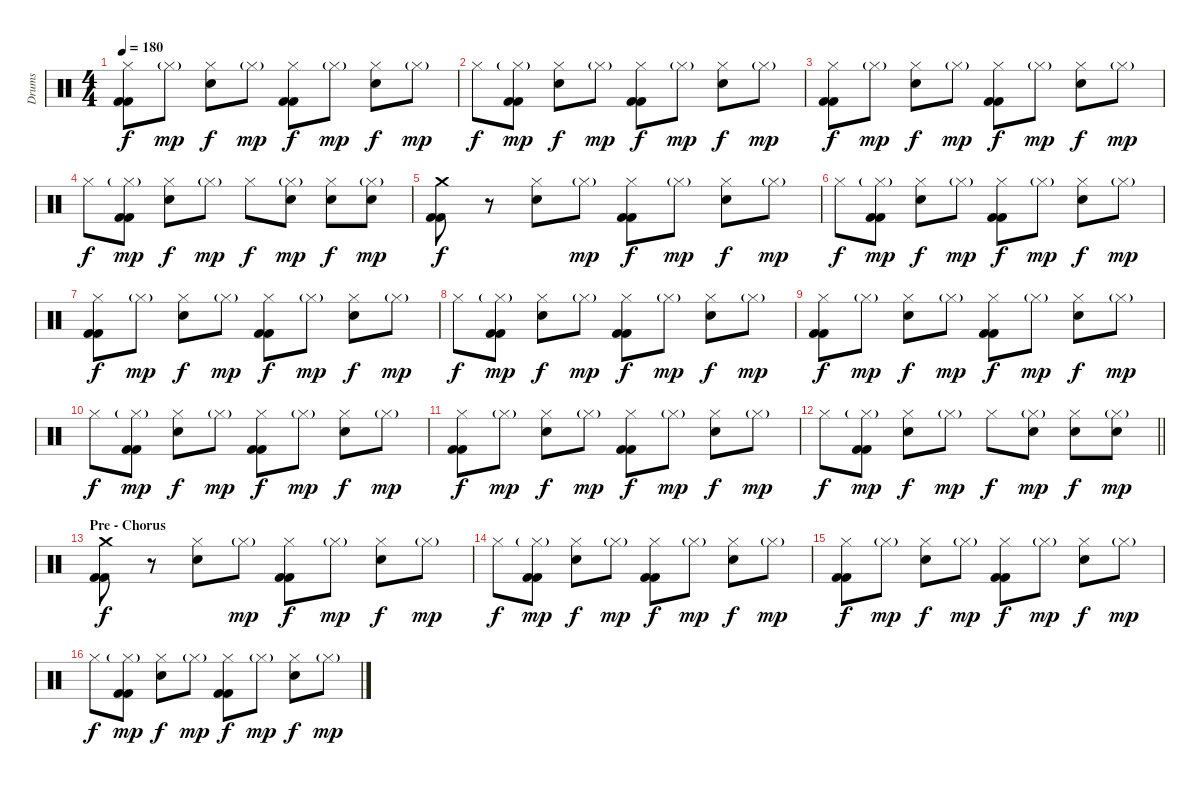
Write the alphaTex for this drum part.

\track ("Drums" "Drums") {instrument percussion}
\staff {score}
\articulation defaults
\ts (4 4)
\tempo 180
\clef neutral
\ks c
("Hi-Hat (closed)" "Kick (hit) 2" "Kick (hit) 2").8{dy f} "Hi-Hat (closed)"{g}.8{dy mp} ("Hi-Hat (closed)" "Snare (hit) 2").8{dy f} "Hi-Hat (closed)"{g}.8{dy mp} ("Hi-Hat (closed)" "Kick (hit) 2" "Kick (hit) 2").8{dy f} "Hi-Hat (closed)"{g}.8{dy mp} ("Hi-Hat (closed)" "Snare (hit) 2").8{dy f} "Hi-Hat (closed)"{g}.8{dy mp} |
"Hi-Hat (closed)".8{dy f} ("Hi-Hat (closed)"{g} "Kick (hit) 2" "Kick (hit) 2").8{dy mp} ("Hi-Hat (closed)" "Snare (hit) 2").8{dy f} "Hi-Hat (closed)"{g}.8{dy mp} ("Hi-Hat (closed)" "Kick (hit) 2" "Kick (hit) 2").8{dy f} "Hi-Hat (closed)"{g}.8{dy mp} ("Hi-Hat (closed)" "Snare (hit) 2").8{dy f} "Hi-Hat (closed)"{g}.8{dy mp} |
("Hi-Hat (closed)" "Kick (hit) 2" "Kick (hit) 2").8{dy f} "Hi-Hat (closed)"{g}.8{dy mp} ("Hi-Hat (closed)" "Snare (hit) 2").8{dy f} "Hi-Hat (closed)"{g}.8{dy mp} ("Hi-Hat (closed)" "Kick (hit) 2" "Kick (hit) 2").8{dy f} "Hi-Hat (closed)"{g}.8{dy mp} ("Hi-Hat (closed)" "Snare (hit) 2").8{dy f} "Hi-Hat (closed)"{g}.8{dy mp} |
"Hi-Hat (closed)".8{dy f} ("Hi-Hat (closed)"{g} "Kick (hit) 2" "Kick (hit) 2").8{dy mp} ("Hi-Hat (closed)" "Snare (hit) 2").8{dy f} "Hi-Hat (closed)"{g}.8{dy mp} "Hi-Hat (closed)".8{dy f} ("Hi-Hat (closed)"{g} "Snare (hit) 2").8{dy mp} ("Hi-Hat (closed)" "Snare (hit) 2").8{dy f} ("Hi-Hat (closed)"{g} "Snare (hit) 2").8{dy mp} |
("Crash medium (hit)" "Kick (hit) 2" "Kick (hit) 2").8{dy f} r.8 ("Hi-Hat (closed)" "Snare (hit) 2").8 "Hi-Hat (closed)"{g}.8{dy mp} ("Hi-Hat (closed)" "Kick (hit) 2" "Kick (hit) 2").8{dy f} "Hi-Hat (closed)"{g}.8{dy mp} ("Hi-Hat (closed)" "Snare (hit) 2").8{dy f} "Hi-Hat (closed)"{g}.8{dy mp} |
"Hi-Hat (closed)".8{dy f} ("Hi-Hat (closed)"{g} "Kick (hit) 2" "Kick (hit) 2").8{dy mp} ("Hi-Hat (closed)" "Snare (hit) 2").8{dy f} "Hi-Hat (closed)"{g}.8{dy mp} ("Hi-Hat (closed)" "Kick (hit) 2" "Kick (hit) 2").8{dy f} "Hi-Hat (closed)"{g}.8{dy mp} ("Hi-Hat (closed)" "Snare (hit) 2").8{dy f} "Hi-Hat (closed)"{g}.8{dy mp} |
("Hi-Hat (closed)" "Kick (hit) 2" "Kick (hit) 2").8{dy f} "Hi-Hat (closed)"{g}.8{dy mp} ("Hi-Hat (closed)" "Snare (hit) 2").8{dy f} "Hi-Hat (closed)"{g}.8{dy mp} ("Hi-Hat (closed)" "Kick (hit) 2" "Kick (hit) 2").8{dy f} "Hi-Hat (closed)"{g}.8{dy mp} ("Hi-Hat (closed)" "Snare (hit) 2").8{dy f} "Hi-Hat (closed)"{g}.8{dy mp} |
"Hi-Hat (closed)".8{dy f} ("Hi-Hat (closed)"{g} "Kick (hit) 2" "Kick (hit) 2").8{dy mp} ("Hi-Hat (closed)" "Snare (hit) 2").8{dy f} "Hi-Hat (closed)"{g}.8{dy mp} ("Hi-Hat (closed)" "Kick (hit) 2" "Kick (hit) 2").8{dy f} "Hi-Hat (closed)"{g}.8{dy mp} ("Hi-Hat (closed)" "Snare (hit) 2").8{dy f} "Hi-Hat (closed)"{g}.8{dy mp} |
("Hi-Hat (closed)" "Kick (hit) 2" "Kick (hit) 2").8{dy f} "Hi-Hat (closed)"{g}.8{dy mp} ("Hi-Hat (closed)" "Snare (hit) 2").8{dy f} "Hi-Hat (closed)"{g}.8{dy mp} ("Hi-Hat (closed)" "Kick (hit) 2" "Kick (hit) 2").8{dy f} "Hi-Hat (closed)"{g}.8{dy mp} ("Hi-Hat (closed)" "Snare (hit) 2").8{dy f} "Hi-Hat (closed)"{g}.8{dy mp} |
"Hi-Hat (closed)".8{dy f} ("Hi-Hat (closed)"{g} "Kick (hit) 2" "Kick (hit) 2").8{dy mp} ("Hi-Hat (closed)" "Snare (hit) 2").8{dy f} "Hi-Hat (closed)"{g}.8{dy mp} ("Hi-Hat (closed)" "Kick (hit) 2" "Kick (hit) 2").8{dy f} "Hi-Hat (closed)"{g}.8{dy mp} ("Hi-Hat (closed)" "Snare (hit) 2").8{dy f} "Hi-Hat (closed)"{g}.8{dy mp} |
("Hi-Hat (closed)" "Kick (hit) 2" "Kick (hit) 2").8{dy f} "Hi-Hat (closed)"{g}.8{dy mp} ("Hi-Hat (closed)" "Snare (hit) 2").8{dy f} "Hi-Hat (closed)"{g}.8{dy mp} ("Hi-Hat (closed)" "Kick (hit) 2" "Kick (hit) 2").8{dy f} "Hi-Hat (closed)"{g}.8{dy mp} ("Hi-Hat (closed)" "Snare (hit) 2").8{dy f} "Hi-Hat (closed)"{g}.8{dy mp} |
\barLineRight lightlight "Hi-Hat (closed)".8{dy f}
("Hi-Hat (closed)"{g} "Kick (hit) 2" "Kick (hit) 2").8{dy mp} ("Hi-Hat (closed)" "Snare (hit) 2").8{dy f} "Hi-Hat (closed)"{g}.8{dy mp} "Hi-Hat (closed)".8{dy f} ("Hi-Hat (closed)"{g} "Snare (hit) 2").8{dy mp} ("Hi-Hat (closed)" "Snare (hit) 2").8{dy f} ("Hi-Hat (closed)"{g} "Snare (hit) 2").8{dy mp} |
\section ("" "Pre - Chorus")
("Crash medium (hit)" "Kick (hit) 2" "Kick (hit) 2").8{dy f} r.8 ("Hi-Hat (closed)" "Snare (hit) 2").8 "Hi-Hat (closed)"{g}.8{dy mp} ("Hi-Hat (closed)" "Kick (hit) 2" "Kick (hit) 2").8{dy f} "Hi-Hat (closed)"{g}.8{dy mp} ("Hi-Hat (closed)" "Snare (hit) 2").8{dy f} "Hi-Hat (closed)"{g}.8{dy mp} |
"Hi-Hat (closed)".8{dy f} ("Hi-Hat (closed)"{g} "Kick (hit) 2" "Kick (hit) 2").8{dy mp} ("Hi-Hat (closed)" "Snare (hit) 2").8{dy f} "Hi-Hat (closed)"{g}.8{dy mp} ("Hi-Hat (closed)" "Kick (hit) 2" "Kick (hit) 2").8{dy f} "Hi-Hat (closed)"{g}.8{dy mp} ("Hi-Hat (closed)" "Snare (hit) 2").8{dy f} "Hi-Hat (closed)"{g}.8{dy mp} |
("Hi-Hat (closed)" "Kick (hit) 2" "Kick (hit) 2").8{dy f} "Hi-Hat (closed)"{g}.8{dy mp} ("Hi-Hat (closed)" "Snare (hit) 2").8{dy f} "Hi-Hat (closed)"{g}.8{dy mp} ("Hi-Hat (closed)" "Kick (hit) 2" "Kick (hit) 2").8{dy f} "Hi-Hat (closed)"{g}.8{dy mp} ("Hi-Hat (closed)" "Snare (hit) 2").8{dy f} "Hi-Hat (closed)"{g}.8{dy mp} |
"Hi-Hat (closed)".8{dy f} ("Hi-Hat (closed)"{g} "Kick (hit) 2" "Kick (hit) 2").8{dy mp} ("Hi-Hat (closed)" "Snare (hit) 2").8{dy f} "Hi-Hat (closed)"{g}.8{dy mp} ("Hi-Hat (closed)" "Kick (hit) 2" "Kick (hit) 2").8{dy f} "Hi-Hat (closed)"{g}.8{dy mp} ("Hi-Hat (closed)" "Snare (hit) 2").8{dy f} "Hi-Hat (closed)"{g}.8{dy mp}
